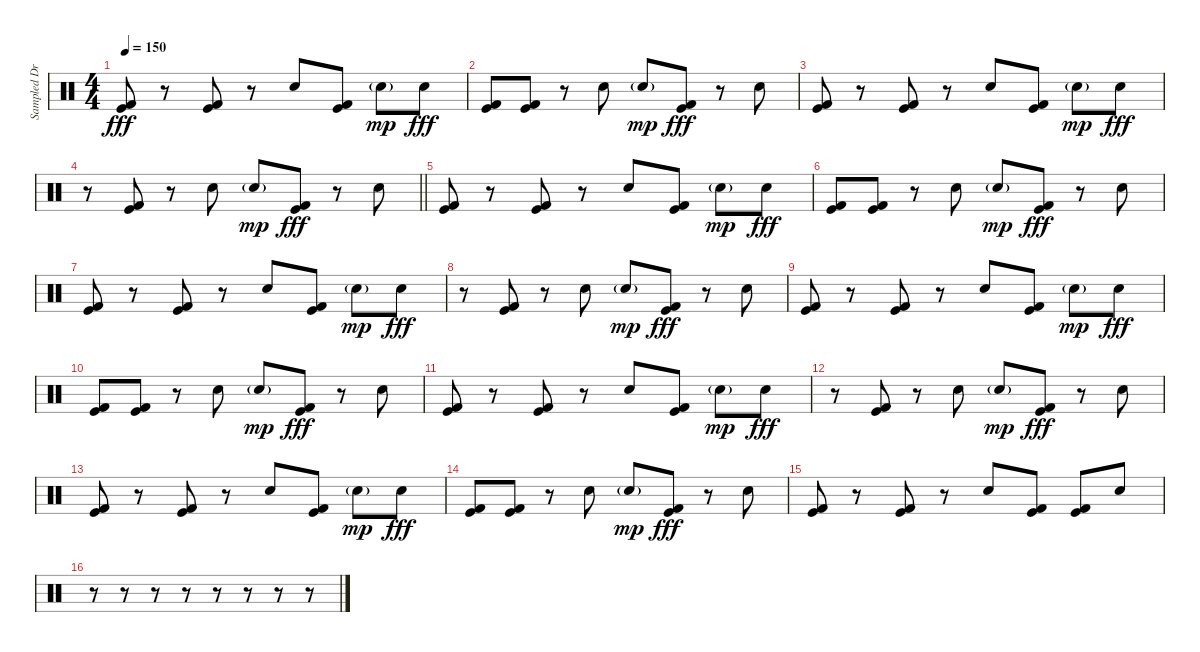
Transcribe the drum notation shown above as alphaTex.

\track ("Sampled Drums" "Sampled Dr") {instrument percussion}
\staff {score}
\articulation defaults
\ts (4 4)
\tempo 150
\clef neutral
\ks c
("Kick (hit)" "Kick (hit) 2").8{dy fff} r.8 ("Kick (hit)" "Kick (hit) 2").8 r.8 "Electric Snare (hit)".8 ("Kick (hit)" "Kick (hit) 2").8 "Electric Snare (hit)"{g}.8{dy mp} "Electric Snare (hit)".8{dy fff} |
("Kick (hit)" "Kick (hit) 2").8 ("Kick (hit)" "Kick (hit) 2").8 r.8 "Electric Snare (hit)".8 "Electric Snare (hit)"{g}.8{dy mp} ("Kick (hit)" "Kick (hit) 2").8{dy fff} r.8 "Electric Snare (hit)".8 |
("Kick (hit)" "Kick (hit) 2").8 r.8 ("Kick (hit)" "Kick (hit) 2").8 r.8 "Electric Snare (hit)".8 ("Kick (hit)" "Kick (hit) 2").8 "Electric Snare (hit)"{g}.8{dy mp} "Electric Snare (hit)".8{dy fff} |
\barLineRight lightlight
r.8 ("Kick (hit)" "Kick (hit) 2").8 r.8 "Electric Snare (hit)".8 "Electric Snare (hit)"{g}.8{dy mp} ("Kick (hit)" "Kick (hit) 2").8{dy fff} r.8 "Electric Snare (hit)".8 |
("Kick (hit)" "Kick (hit) 2").8 r.8 ("Kick (hit)" "Kick (hit) 2").8 r.8 "Electric Snare (hit)".8 ("Kick (hit)" "Kick (hit) 2").8 "Electric Snare (hit)"{g}.8{dy mp} "Electric Snare (hit)".8{dy fff} |
("Kick (hit)" "Kick (hit) 2").8 ("Kick (hit)" "Kick (hit) 2").8 r.8 "Electric Snare (hit)".8 "Electric Snare (hit)"{g}.8{dy mp} ("Kick (hit)" "Kick (hit) 2").8{dy fff} r.8 "Electric Snare (hit)".8 |
("Kick (hit)" "Kick (hit) 2").8 r.8 ("Kick (hit)" "Kick (hit) 2").8 r.8 "Electric Snare (hit)".8 ("Kick (hit)" "Kick (hit) 2").8 "Electric Snare (hit)"{g}.8{dy mp} "Electric Snare (hit)".8{dy fff} |
r.8 ("Kick (hit)" "Kick (hit) 2").8 r.8 "Electric Snare (hit)".8 "Electric Snare (hit)"{g}.8{dy mp} ("Kick (hit)" "Kick (hit) 2").8{dy fff} r.8 "Electric Snare (hit)".8 |
("Kick (hit)" "Kick (hit) 2").8 r.8 ("Kick (hit)" "Kick (hit) 2").8 r.8 "Electric Snare (hit)".8 ("Kick (hit)" "Kick (hit) 2").8 "Electric Snare (hit)"{g}.8{dy mp} "Electric Snare (hit)".8{dy fff} |
("Kick (hit)" "Kick (hit) 2").8 ("Kick (hit)" "Kick (hit) 2").8 r.8 "Electric Snare (hit)".8 "Electric Snare (hit)"{g}.8{dy mp} ("Kick (hit)" "Kick (hit) 2").8{dy fff} r.8 "Electric Snare (hit)".8 |
("Kick (hit)" "Kick (hit) 2").8 r.8 ("Kick (hit)" "Kick (hit) 2").8 r.8 "Electric Snare (hit)".8 ("Kick (hit)" "Kick (hit) 2").8 "Electric Snare (hit)"{g}.8{dy mp} "Electric Snare (hit)".8{dy fff} |
r.8 ("Kick (hit)" "Kick (hit) 2").8 r.8 "Electric Snare (hit)".8 "Electric Snare (hit)"{g}.8{dy mp} ("Kick (hit)" "Kick (hit) 2").8{dy fff} r.8 "Electric Snare (hit)".8 |
("Kick (hit)" "Kick (hit) 2").8 r.8 ("Kick (hit)" "Kick (hit) 2").8 r.8 "Electric Snare (hit)".8 ("Kick (hit)" "Kick (hit) 2").8 "Electric Snare (hit)"{g}.8{dy mp} "Electric Snare (hit)".8{dy fff} |
("Kick (hit)" "Kick (hit) 2").8 ("Kick (hit)" "Kick (hit) 2").8 r.8 "Electric Snare (hit)".8 "Electric Snare (hit)"{g}.8{dy mp} ("Kick (hit)" "Kick (hit) 2").8{dy fff} r.8 "Electric Snare (hit)".8 |
("Kick (hit)" "Kick (hit) 2").8 r.8 ("Kick (hit)" "Kick (hit) 2").8 r.8 "Electric Snare (hit)".8 ("Kick (hit)" "Kick (hit) 2").8 ("Kick (hit)" "Kick (hit) 2").8 "Electric Snare (hit)".8 |
r.8 r.8 r.8 r.8 r.8 r.8 r.8 r.8
